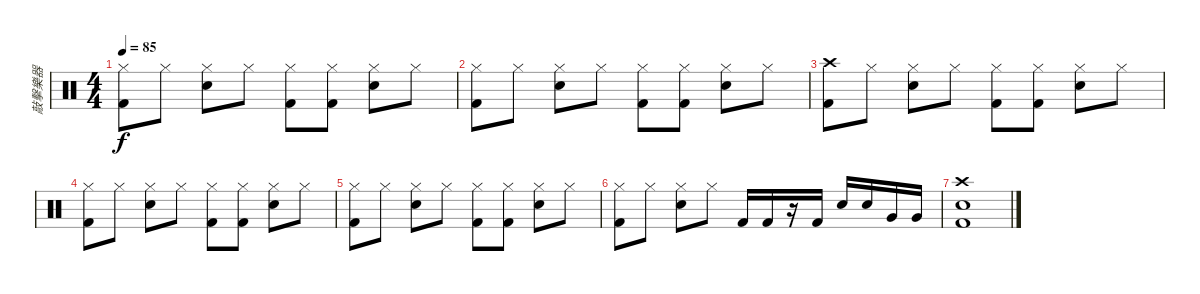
\track ("敲擊樂器" "敲擊樂器") {instrument percussion}
\staff {score}
\articulation defaults
\ts (4 4)
\tempo 85
\clef neutral
\ks c
("Hi-Hat (closed)" "Kick (hit) 2").8{dy f} "Hi-Hat (closed)".8 ("Hi-Hat (closed)" "Snare (hit) 2").8 "Hi-Hat (closed)".8 ("Hi-Hat (closed)" "Kick (hit) 2").8 ("Hi-Hat (closed)" "Kick (hit) 2").8 ("Hi-Hat (closed)" "Snare (hit) 2").8 "Hi-Hat (closed)".8 |
("Hi-Hat (closed)" "Kick (hit) 2").8 "Hi-Hat (closed)".8 ("Hi-Hat (closed)" "Snare (hit) 2").8 "Hi-Hat (closed)".8 ("Hi-Hat (closed)" "Kick (hit) 2").8 ("Hi-Hat (closed)" "Kick (hit) 2").8 ("Hi-Hat (closed)" "Snare (hit) 2").8 "Hi-Hat (closed)".8 |
("Crash high (hit)" "Kick (hit) 2").8 "Hi-Hat (closed)".8 ("Hi-Hat (closed)" "Snare (hit) 2").8 "Hi-Hat (closed)".8 ("Hi-Hat (closed)" "Kick (hit) 2").8 ("Hi-Hat (closed)" "Kick (hit) 2").8 ("Hi-Hat (closed)" "Snare (hit) 2").8 "Hi-Hat (closed)".8 |
("Hi-Hat (closed)" "Kick (hit) 2").8 "Hi-Hat (closed)".8 ("Hi-Hat (closed)" "Snare (hit) 2").8 "Hi-Hat (closed)".8 ("Hi-Hat (closed)" "Kick (hit) 2").8 ("Hi-Hat (closed)" "Kick (hit) 2").8 ("Hi-Hat (closed)" "Snare (hit) 2").8 "Hi-Hat (closed)".8 |
("Hi-Hat (closed)" "Kick (hit) 2").8 "Hi-Hat (closed)".8 ("Hi-Hat (closed)" "Snare (hit) 2").8 "Hi-Hat (closed)".8 ("Hi-Hat (closed)" "Kick (hit) 2").8 ("Hi-Hat (closed)" "Kick (hit) 2").8 ("Hi-Hat (closed)" "Snare (hit) 2").8 "Hi-Hat (closed)".8 |
("Hi-Hat (closed)" "Kick (hit) 2").8 "Hi-Hat (closed)".8 ("Hi-Hat (closed)" "Snare (hit) 2").8 "Hi-Hat (closed)".8 "Kick (hit) 2".16 "Kick (hit) 2".16 r.16 "Kick (hit) 2".16 "Snare (hit) 2".16 "Snare (hit) 2".16 "Very Low Tom (hit)".16 "Very Low Tom (hit)".16 |
("Crash high (hit)" "Snare (hit) 2" "Kick (hit) 2").1
